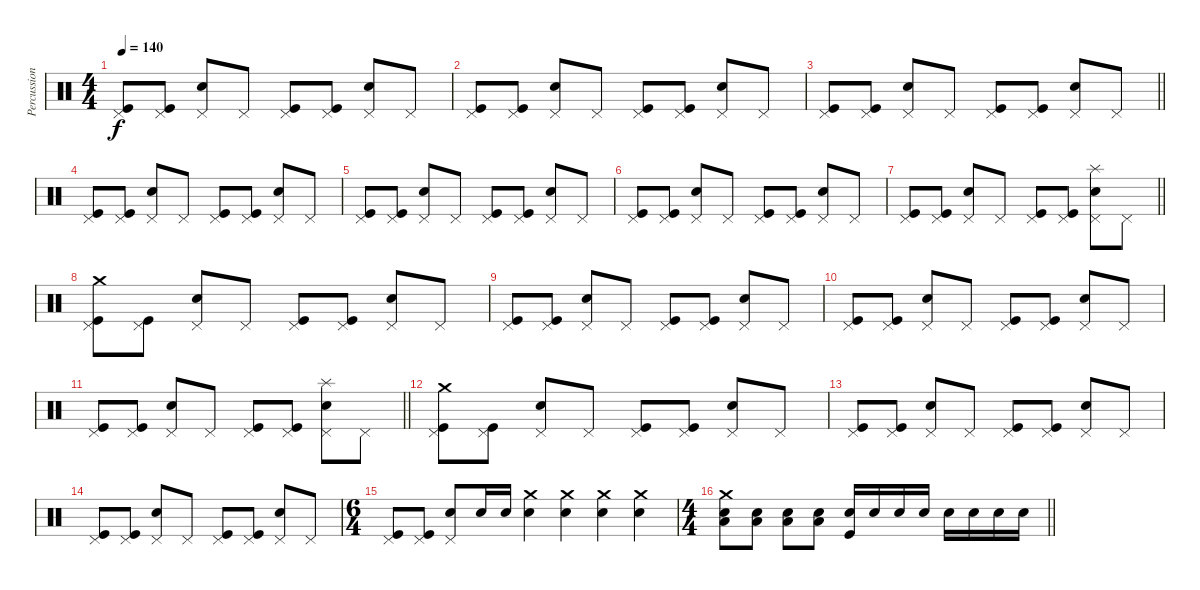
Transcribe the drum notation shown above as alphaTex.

\track ("Percussion" "Percussion") {instrument percussion}
\staff {score}
\articulation defaults
\ts (4 4)
\tempo 140
\clef neutral
\ks c
("Pedal Hi-Hat (hit)" "Kick (hit)").8{dy f} ("Pedal Hi-Hat (hit)" "Kick (hit)").8 ("Pedal Hi-Hat (hit)" "Electric Snare (hit)").8 "Pedal Hi-Hat (hit)".8 ("Pedal Hi-Hat (hit)" "Kick (hit)").8 ("Pedal Hi-Hat (hit)" "Kick (hit)").8 ("Pedal Hi-Hat (hit)" "Electric Snare (hit)").8 "Pedal Hi-Hat (hit)".8 |
("Pedal Hi-Hat (hit)" "Kick (hit)").8 ("Pedal Hi-Hat (hit)" "Kick (hit)").8 ("Pedal Hi-Hat (hit)" "Electric Snare (hit)").8 "Pedal Hi-Hat (hit)".8 ("Pedal Hi-Hat (hit)" "Kick (hit)").8 ("Pedal Hi-Hat (hit)" "Kick (hit)").8 ("Pedal Hi-Hat (hit)" "Electric Snare (hit)").8 "Pedal Hi-Hat (hit)".8 |
\barLineRight lightlight
("Pedal Hi-Hat (hit)" "Kick (hit)").8 ("Pedal Hi-Hat (hit)" "Kick (hit)").8 ("Pedal Hi-Hat (hit)" "Electric Snare (hit)").8 "Pedal Hi-Hat (hit)".8 ("Pedal Hi-Hat (hit)" "Kick (hit)").8 ("Pedal Hi-Hat (hit)" "Kick (hit)").8 ("Pedal Hi-Hat (hit)" "Electric Snare (hit)").8 "Pedal Hi-Hat (hit)".8 |
("Pedal Hi-Hat (hit)" "Kick (hit)").8 ("Pedal Hi-Hat (hit)" "Kick (hit)").8 ("Pedal Hi-Hat (hit)" "Electric Snare (hit)").8 "Pedal Hi-Hat (hit)".8 ("Pedal Hi-Hat (hit)" "Kick (hit)").8 ("Pedal Hi-Hat (hit)" "Kick (hit)").8 ("Pedal Hi-Hat (hit)" "Electric Snare (hit)").8 "Pedal Hi-Hat (hit)".8 |
("Pedal Hi-Hat (hit)" "Kick (hit)").8 ("Pedal Hi-Hat (hit)" "Kick (hit)").8 ("Pedal Hi-Hat (hit)" "Electric Snare (hit)").8 "Pedal Hi-Hat (hit)".8 ("Pedal Hi-Hat (hit)" "Kick (hit)").8 ("Pedal Hi-Hat (hit)" "Kick (hit)").8 ("Pedal Hi-Hat (hit)" "Electric Snare (hit)").8 "Pedal Hi-Hat (hit)".8 |
("Pedal Hi-Hat (hit)" "Kick (hit)").8 ("Pedal Hi-Hat (hit)" "Kick (hit)").8 ("Pedal Hi-Hat (hit)" "Electric Snare (hit)").8 "Pedal Hi-Hat (hit)".8 ("Pedal Hi-Hat (hit)" "Kick (hit)").8 ("Pedal Hi-Hat (hit)" "Kick (hit)").8 ("Pedal Hi-Hat (hit)" "Electric Snare (hit)").8 "Pedal Hi-Hat (hit)".8 |
\barLineRight lightlight
("Pedal Hi-Hat (hit)" "Kick (hit)").8 ("Pedal Hi-Hat (hit)" "Kick (hit)").8 ("Pedal Hi-Hat (hit)" "Electric Snare (hit)").8 "Pedal Hi-Hat (hit)".8 ("Pedal Hi-Hat (hit)" "Kick (hit)").8 ("Pedal Hi-Hat (hit)" "Kick (hit)").8 ("Pedal Hi-Hat (hit)" "Electric Snare (hit)" "Splash (hit)").8 "Pedal Hi-Hat (hit)".8 |
("Pedal Hi-Hat (hit)" "Kick (hit)" "Crash medium (hit)").8 ("Pedal Hi-Hat (hit)" "Kick (hit)").8 ("Pedal Hi-Hat (hit)" "Electric Snare (hit)").8 "Pedal Hi-Hat (hit)".8 ("Pedal Hi-Hat (hit)" "Kick (hit)").8 ("Pedal Hi-Hat (hit)" "Kick (hit)").8 ("Pedal Hi-Hat (hit)" "Electric Snare (hit)").8 "Pedal Hi-Hat (hit)".8 |
("Pedal Hi-Hat (hit)" "Kick (hit)").8 ("Pedal Hi-Hat (hit)" "Kick (hit)").8 ("Pedal Hi-Hat (hit)" "Electric Snare (hit)").8 "Pedal Hi-Hat (hit)".8 ("Pedal Hi-Hat (hit)" "Kick (hit)").8 ("Pedal Hi-Hat (hit)" "Kick (hit)").8 ("Pedal Hi-Hat (hit)" "Electric Snare (hit)").8 "Pedal Hi-Hat (hit)".8 |
("Pedal Hi-Hat (hit)" "Kick (hit)").8 ("Pedal Hi-Hat (hit)" "Kick (hit)").8 ("Pedal Hi-Hat (hit)" "Electric Snare (hit)").8 "Pedal Hi-Hat (hit)".8 ("Pedal Hi-Hat (hit)" "Kick (hit)").8 ("Pedal Hi-Hat (hit)" "Kick (hit)").8 ("Pedal Hi-Hat (hit)" "Electric Snare (hit)").8 "Pedal Hi-Hat (hit)".8 |
\barLineRight lightlight
("Pedal Hi-Hat (hit)" "Kick (hit)").8 ("Pedal Hi-Hat (hit)" "Kick (hit)").8 ("Pedal Hi-Hat (hit)" "Electric Snare (hit)").8 "Pedal Hi-Hat (hit)".8 ("Pedal Hi-Hat (hit)" "Kick (hit)").8 ("Pedal Hi-Hat (hit)" "Kick (hit)").8 ("Pedal Hi-Hat (hit)" "Electric Snare (hit)" "Splash (hit)").8 "Pedal Hi-Hat (hit)".8 |
("Pedal Hi-Hat (hit)" "Kick (hit)" "Crash medium (hit)").8 ("Pedal Hi-Hat (hit)" "Kick (hit)").8 ("Pedal Hi-Hat (hit)" "Electric Snare (hit)").8 "Pedal Hi-Hat (hit)".8 ("Pedal Hi-Hat (hit)" "Kick (hit)").8 ("Pedal Hi-Hat (hit)" "Kick (hit)").8 ("Pedal Hi-Hat (hit)" "Electric Snare (hit)").8 "Pedal Hi-Hat (hit)".8 |
("Pedal Hi-Hat (hit)" "Kick (hit)").8 ("Pedal Hi-Hat (hit)" "Kick (hit)").8 ("Pedal Hi-Hat (hit)" "Electric Snare (hit)").8 "Pedal Hi-Hat (hit)".8 ("Pedal Hi-Hat (hit)" "Kick (hit)").8 ("Pedal Hi-Hat (hit)" "Kick (hit)").8 ("Pedal Hi-Hat (hit)" "Electric Snare (hit)").8 "Pedal Hi-Hat (hit)".8 |
("Pedal Hi-Hat (hit)" "Kick (hit)").8 ("Pedal Hi-Hat (hit)" "Kick (hit)").8 ("Pedal Hi-Hat (hit)" "Electric Snare (hit)").8 "Pedal Hi-Hat (hit)".8 ("Pedal Hi-Hat (hit)" "Kick (hit)").8 ("Pedal Hi-Hat (hit)" "Kick (hit)").8 ("Pedal Hi-Hat (hit)" "Electric Snare (hit)").8 "Pedal Hi-Hat (hit)".8 |
\ts (6 4)
("Pedal Hi-Hat (hit)" "Kick (hit)").8 ("Pedal Hi-Hat (hit)" "Kick (hit)").8 ("Pedal Hi-Hat (hit)" "Electric Snare (hit)").8 "Electric Snare (hit)".16 "Electric Snare (hit)".16 ("Electric Snare (hit)" "Crash medium (hit)").4 ("Electric Snare (hit)" "Crash medium (hit)").4 ("Electric Snare (hit)" "Crash medium (hit)").4 ("Electric Snare (hit)" "Crash medium (hit)").4 |
\ts (4 4)
\barLineRight lightlight
("Electric Snare (hit)" "Low Tom (hit)" "Crash medium (hit)").8 ("Electric Snare (hit)" "Low Tom (hit)").8 ("Electric Snare (hit)" "Low Tom (hit)").8 ("Electric Snare (hit)" "Low Tom (hit)").8 ("Electric Snare (hit)" "Kick (hit)").16 "Electric Snare (hit)".16 "Electric Snare (hit)".16 "Electric Snare (hit)".16 "Electric Snare (hit)".16 "Electric Snare (hit)".16 "Electric Snare (hit)".16 "Electric Snare (hit)".16
